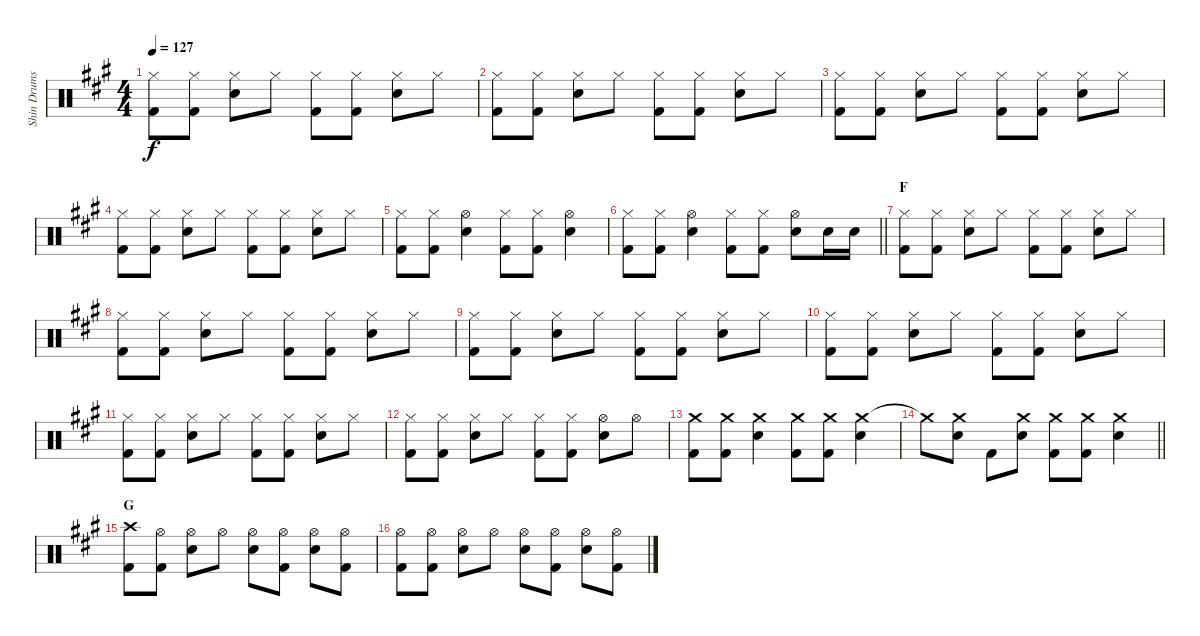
\track ("Shin Drums" "Shin Drums") {instrument percussion}
\staff {score}
\articulation defaults
\ts (4 4)
\tempo 127
\clef neutral
\ks a
("Hi-Hat (closed)" "Kick (hit) 2").8{dy f} ("Hi-Hat (closed)" "Kick (hit) 2").8 ("Hi-Hat (closed)" "Snare (hit) 2").8 "Hi-Hat (closed)".8 ("Hi-Hat (closed)" "Kick (hit) 2").8 ("Hi-Hat (closed)" "Kick (hit) 2").8 ("Hi-Hat (closed)" "Snare (hit) 2").8 "Hi-Hat (closed)".8 |
("Hi-Hat (closed)" "Kick (hit) 2").8 ("Hi-Hat (closed)" "Kick (hit) 2").8 ("Hi-Hat (closed)" "Snare (hit) 2").8 "Hi-Hat (closed)".8 ("Hi-Hat (closed)" "Kick (hit) 2").8 ("Hi-Hat (closed)" "Kick (hit) 2").8 ("Hi-Hat (closed)" "Snare (hit) 2").8 "Hi-Hat (closed)".8 |
("Hi-Hat (closed)" "Kick (hit) 2").8 ("Hi-Hat (closed)" "Kick (hit) 2").8 ("Hi-Hat (closed)" "Snare (hit) 2").8 "Hi-Hat (closed)".8 ("Hi-Hat (closed)" "Kick (hit) 2").8 ("Hi-Hat (closed)" "Kick (hit) 2").8 ("Hi-Hat (closed)" "Snare (hit) 2").8 "Hi-Hat (closed)".8 |
("Hi-Hat (closed)" "Kick (hit) 2").8 ("Hi-Hat (closed)" "Kick (hit) 2").8 ("Hi-Hat (closed)" "Snare (hit) 2").8 "Hi-Hat (closed)".8 ("Hi-Hat (closed)" "Kick (hit) 2").8 ("Hi-Hat (closed)" "Kick (hit) 2").8 ("Hi-Hat (closed)" "Snare (hit) 2").8 "Hi-Hat (closed)".8 |
("Hi-Hat (closed)" "Kick (hit) 2").8 ("Hi-Hat (closed)" "Kick (hit) 2").8 ("Hi-Hat (open)" "Snare (hit) 2").4 ("Hi-Hat (closed)" "Kick (hit) 2").8 ("Hi-Hat (closed)" "Kick (hit) 2").8 ("Hi-Hat (open)" "Snare (hit) 2").4 |
\barLineRight lightlight
("Hi-Hat (closed)" "Kick (hit) 2").8 ("Hi-Hat (closed)" "Kick (hit) 2").8 ("Hi-Hat (open)" "Snare (hit) 2").4 ("Hi-Hat (closed)" "Kick (hit) 2").8 ("Hi-Hat (closed)" "Kick (hit) 2").8 ("Hi-Hat (open)" "Snare (hit) 2").8 "Snare (hit) 2".16 "Snare (hit) 2".16 |
\section ("" "F")
("Hi-Hat (closed)" "Kick (hit) 2").8 ("Hi-Hat (closed)" "Kick (hit) 2").8 ("Hi-Hat (closed)" "Snare (hit) 2").8 "Hi-Hat (closed)".8 ("Hi-Hat (closed)" "Kick (hit) 2").8 ("Hi-Hat (closed)" "Kick (hit) 2").8 ("Hi-Hat (closed)" "Snare (hit) 2").8 "Hi-Hat (closed)".8 |
("Hi-Hat (closed)" "Kick (hit) 2").8 ("Hi-Hat (closed)" "Kick (hit) 2").8 ("Hi-Hat (closed)" "Snare (hit) 2").8 "Hi-Hat (closed)".8 ("Hi-Hat (closed)" "Kick (hit) 2").8 ("Hi-Hat (closed)" "Kick (hit) 2").8 ("Hi-Hat (closed)" "Snare (hit) 2").8 "Hi-Hat (closed)".8 |
("Hi-Hat (closed)" "Kick (hit) 2").8 ("Hi-Hat (closed)" "Kick (hit) 2").8 ("Hi-Hat (closed)" "Snare (hit) 2").8 "Hi-Hat (closed)".8 ("Hi-Hat (closed)" "Kick (hit) 2").8 ("Hi-Hat (closed)" "Kick (hit) 2").8 ("Hi-Hat (closed)" "Snare (hit) 2").8 "Hi-Hat (closed)".8 |
("Hi-Hat (closed)" "Kick (hit) 2").8 ("Hi-Hat (closed)" "Kick (hit) 2").8 ("Hi-Hat (closed)" "Snare (hit) 2").8 "Hi-Hat (closed)".8 ("Hi-Hat (closed)" "Kick (hit) 2").8 ("Hi-Hat (closed)" "Kick (hit) 2").8 ("Hi-Hat (closed)" "Snare (hit) 2").8 "Hi-Hat (closed)".8 |
("Hi-Hat (closed)" "Kick (hit) 2").8 ("Hi-Hat (closed)" "Kick (hit) 2").8 ("Hi-Hat (closed)" "Snare (hit) 2").8 "Hi-Hat (closed)".8 ("Hi-Hat (closed)" "Kick (hit) 2").8 ("Hi-Hat (closed)" "Kick (hit) 2").8 ("Hi-Hat (closed)" "Snare (hit) 2").8 "Hi-Hat (closed)".8 |
("Hi-Hat (closed)" "Kick (hit) 2").8 ("Hi-Hat (closed)" "Kick (hit) 2").8 ("Hi-Hat (closed)" "Snare (hit) 2").8 "Hi-Hat (closed)".8 ("Hi-Hat (closed)" "Kick (hit) 2").8 ("Hi-Hat (closed)" "Kick (hit) 2").8 ("Hi-Hat (open)" "Snare (hit) 2").8 "Hi-Hat (open)".8 |
("Crash medium (hit)" "Kick (hit) 2").8 ("Crash medium (hit)" "Kick (hit) 2").8 ("Crash medium (hit)" "Snare (hit) 2").4 ("Crash medium (hit)" "Kick (hit) 2").8 ("Crash medium (hit)" "Kick (hit) 2").8 ("Crash medium (hit)" "Snare (hit) 2").4 |
\barLineRight lightlight "Crash medium (hit)"{t}.8
("Crash medium (hit)" "Snare (hit) 2").8 "Kick (hit) 2".8 ("Crash medium (hit)" "Snare (hit) 2").8 ("Crash medium (hit)" "Kick (hit) 2").8 ("Crash medium (hit)" "Kick (hit) 2").8 ("Crash medium (hit)" "Snare (hit) 2").4 |
\section ("" "G")
("Crash high (hit)" "Kick (hit) 2").8 ("Hi-Hat (open)" "Kick (hit) 2").8 ("Hi-Hat (open)" "Snare (hit) 2").8 "Hi-Hat (open)".8 ("Hi-Hat (open)" "Snare (hit) 2").8 ("Hi-Hat (open)" "Kick (hit) 2").8 ("Hi-Hat (open)" "Snare (hit) 2").8 ("Hi-Hat (open)" "Kick (hit) 2").8 |
("Hi-Hat (open)" "Kick (hit) 2").8 ("Hi-Hat (open)" "Kick (hit) 2").8 ("Hi-Hat (open)" "Snare (hit) 2").8 "Hi-Hat (open)".8 ("Hi-Hat (open)" "Snare (hit) 2").8 ("Hi-Hat (open)" "Kick (hit) 2").8 ("Hi-Hat (open)" "Snare (hit) 2").8 ("Hi-Hat (open)" "Kick (hit) 2").8
